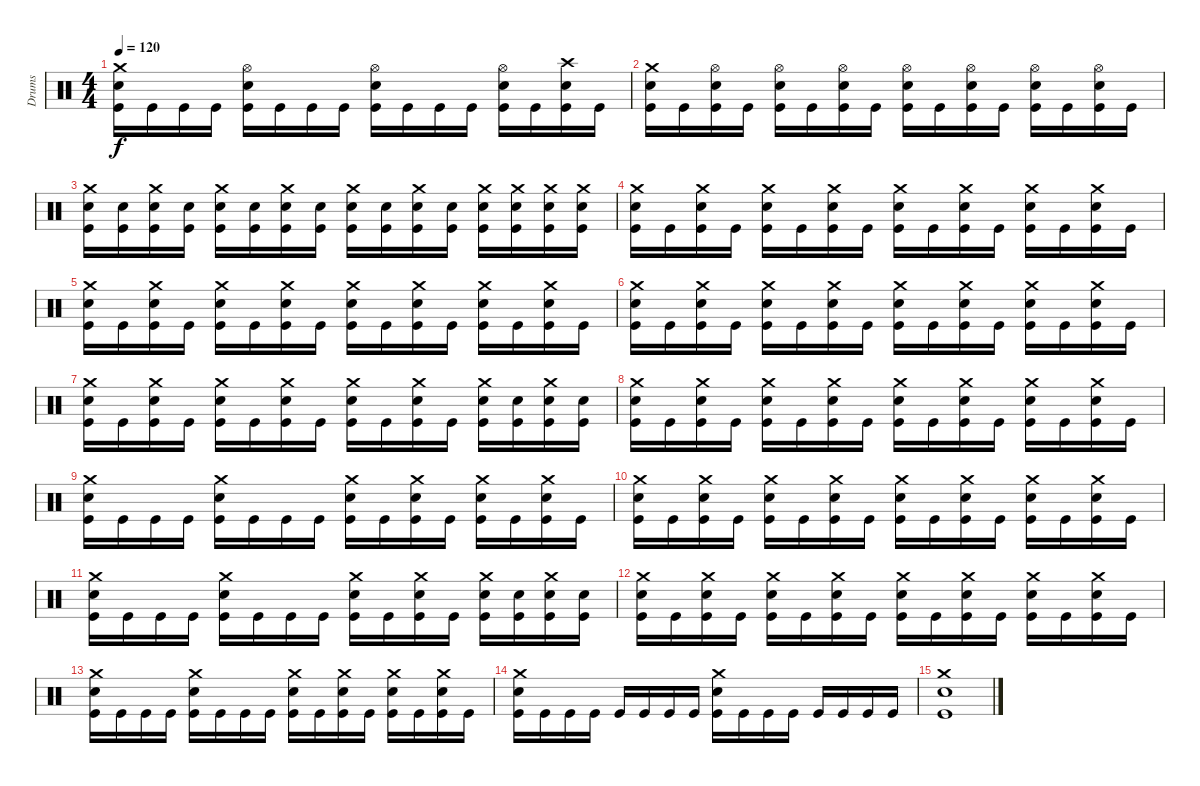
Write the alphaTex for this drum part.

\track ("Drums" "Drums") {instrument percussion}
\staff {score}
\articulation defaults
\ts (4 4)
\tempo 120
\clef neutral
\ks c
("Crash medium (hit)" "Snare (hit) 2" "Kick (hit)").16{dy f} "Kick (hit)".16 "Kick (hit)".16 "Kick (hit)".16 ("Hi-Hat (open)" "Snare (hit) 2" "Kick (hit)").16 "Kick (hit)".16 "Kick (hit)".16 "Kick (hit)".16 ("Hi-Hat (open)" "Snare (hit) 2" "Kick (hit)").16 "Kick (hit)".16 "Kick (hit)".16 "Kick (hit)".16 ("Hi-Hat (open)" "Snare (hit) 2" "Kick (hit)").16 "Kick (hit)".16 ("Crash high (hit)" "Snare (hit) 2" "Kick (hit)").16 "Kick (hit)".16 |
("Crash medium (hit)" "Snare (hit) 2" "Kick (hit)").16 "Kick (hit)".16 ("Hi-Hat (open)" "Snare (hit) 2" "Kick (hit)").16 "Kick (hit)".16 ("Hi-Hat (open)" "Snare (hit) 2" "Kick (hit)").16 "Kick (hit)".16 ("Hi-Hat (open)" "Snare (hit) 2" "Kick (hit)").16 "Kick (hit)".16 ("Hi-Hat (open)" "Snare (hit) 2" "Kick (hit)").16 "Kick (hit)".16 ("Hi-Hat (open)" "Snare (hit) 2" "Kick (hit)").16 "Kick (hit)".16 ("Hi-Hat (open)" "Snare (hit) 2" "Kick (hit)").16 "Kick (hit)".16 ("Hi-Hat (open)" "Snare (hit) 2" "Kick (hit)").16 "Kick (hit)".16 |
("Crash medium (hit)" "Snare (hit) 2" "Kick (hit)").16 ("Snare (hit) 2" "Kick (hit)").16 ("Crash medium (hit)" "Snare (hit) 2" "Kick (hit)").16 ("Snare (hit) 2" "Kick (hit)").16 ("Crash medium (hit)" "Snare (hit) 2" "Kick (hit)").16 ("Snare (hit) 2" "Kick (hit)").16 ("Crash medium (hit)" "Snare (hit) 2" "Kick (hit)").16 ("Snare (hit) 2" "Kick (hit)").16 ("Crash medium (hit)" "Snare (hit) 2" "Kick (hit)").16 ("Snare (hit) 2" "Kick (hit)").16 ("Crash medium (hit)" "Snare (hit) 2" "Kick (hit)").16 ("Snare (hit) 2" "Kick (hit)").16 ("Crash medium (hit)" "Snare (hit) 2" "Kick (hit)").16 ("Crash medium (hit)" "Snare (hit) 2" "Kick (hit)").16 ("Crash medium (hit)" "Snare (hit) 2" "Kick (hit)").16 ("Crash medium (hit)" "Snare (hit) 2" "Kick (hit)").16 |
("Crash medium (hit)" "Snare (hit) 2" "Kick (hit)").16 "Kick (hit)".16 ("Crash medium (hit)" "Snare (hit) 2" "Kick (hit)").16 "Kick (hit)".16 ("Crash medium (hit)" "Snare (hit) 2" "Kick (hit)").16 "Kick (hit)".16 ("Crash medium (hit)" "Snare (hit) 2" "Kick (hit)").16 "Kick (hit)".16 ("Crash medium (hit)" "Snare (hit) 2" "Kick (hit)").16 "Kick (hit)".16 ("Crash medium (hit)" "Snare (hit) 2" "Kick (hit)").16 "Kick (hit)".16 ("Crash medium (hit)" "Snare (hit) 2" "Kick (hit)").16 "Kick (hit)".16 ("Crash medium (hit)" "Snare (hit) 2" "Kick (hit)").16 "Kick (hit)".16 |
("Crash medium (hit)" "Snare (hit) 2" "Kick (hit)").16 "Kick (hit)".16 ("Crash medium (hit)" "Snare (hit) 2" "Kick (hit)").16 "Kick (hit)".16 ("Crash medium (hit)" "Snare (hit) 2" "Kick (hit)").16 "Kick (hit)".16 ("Crash medium (hit)" "Snare (hit) 2" "Kick (hit)").16 "Kick (hit)".16 ("Crash medium (hit)" "Snare (hit) 2" "Kick (hit)").16 "Kick (hit)".16 ("Crash medium (hit)" "Snare (hit) 2" "Kick (hit)").16 "Kick (hit)".16 ("Crash medium (hit)" "Snare (hit) 2" "Kick (hit)").16 "Kick (hit)".16 ("Crash medium (hit)" "Snare (hit) 2" "Kick (hit)").16 "Kick (hit)".16 |
("Crash medium (hit)" "Snare (hit) 2" "Kick (hit)").16 "Kick (hit)".16 ("Crash medium (hit)" "Snare (hit) 2" "Kick (hit)").16 "Kick (hit)".16 ("Crash medium (hit)" "Snare (hit) 2" "Kick (hit)").16 "Kick (hit)".16 ("Crash medium (hit)" "Snare (hit) 2" "Kick (hit)").16 "Kick (hit)".16 ("Crash medium (hit)" "Snare (hit) 2" "Kick (hit)").16 "Kick (hit)".16 ("Crash medium (hit)" "Snare (hit) 2" "Kick (hit)").16 "Kick (hit)".16 ("Crash medium (hit)" "Snare (hit) 2" "Kick (hit)").16 "Kick (hit)".16 ("Crash medium (hit)" "Snare (hit) 2" "Kick (hit)").16 "Kick (hit)".16 |
("Crash medium (hit)" "Snare (hit) 2" "Kick (hit)").16 "Kick (hit)".16 ("Crash medium (hit)" "Snare (hit) 2" "Kick (hit)").16 "Kick (hit)".16 ("Crash medium (hit)" "Snare (hit) 2" "Kick (hit)").16 "Kick (hit)".16 ("Crash medium (hit)" "Snare (hit) 2" "Kick (hit)").16 "Kick (hit)".16 ("Crash medium (hit)" "Snare (hit) 2" "Kick (hit)").16 "Kick (hit)".16 ("Crash medium (hit)" "Snare (hit) 2" "Kick (hit)").16 "Kick (hit)".16 ("Crash medium (hit)" "Snare (hit) 2" "Kick (hit)").16 ("Snare (hit) 2" "Kick (hit)").16 ("Crash medium (hit)" "Snare (hit) 2" "Kick (hit)").16 ("Snare (hit) 2" "Kick (hit)").16 |
("Crash medium (hit)" "Snare (hit) 2" "Kick (hit)").16 "Kick (hit)".16 ("Crash medium (hit)" "Snare (hit) 2" "Kick (hit)").16 "Kick (hit)".16 ("Crash medium (hit)" "Snare (hit) 2" "Kick (hit)").16 "Kick (hit)".16 ("Crash medium (hit)" "Snare (hit) 2" "Kick (hit)").16 "Kick (hit)".16 ("Crash medium (hit)" "Snare (hit) 2" "Kick (hit)").16 "Kick (hit)".16 ("Crash medium (hit)" "Snare (hit) 2" "Kick (hit)").16 "Kick (hit)".16 ("Crash medium (hit)" "Snare (hit) 2" "Kick (hit)").16 "Kick (hit)".16 ("Crash medium (hit)" "Snare (hit) 2" "Kick (hit)").16 "Kick (hit)".16 |
("Crash medium (hit)" "Snare (hit) 2" "Kick (hit)").16 "Kick (hit)".16 "Kick (hit)".16 "Kick (hit)".16 ("Crash medium (hit)" "Snare (hit) 2" "Kick (hit)").16 "Kick (hit)".16 "Kick (hit)".16 "Kick (hit)".16 ("Crash medium (hit)" "Snare (hit) 2" "Kick (hit)").16 "Kick (hit)".16 ("Crash medium (hit)" "Snare (hit) 2" "Kick (hit)").16 "Kick (hit)".16 ("Crash medium (hit)" "Snare (hit) 2" "Kick (hit)").16 "Kick (hit)".16 ("Crash medium (hit)" "Snare (hit) 2" "Kick (hit)").16 "Kick (hit)".16 |
("Crash medium (hit)" "Snare (hit) 2" "Kick (hit)").16 "Kick (hit)".16 ("Crash medium (hit)" "Snare (hit) 2" "Kick (hit)").16 "Kick (hit)".16 ("Crash medium (hit)" "Snare (hit) 2" "Kick (hit)").16 "Kick (hit)".16 ("Crash medium (hit)" "Snare (hit) 2" "Kick (hit)").16 "Kick (hit)".16 ("Crash medium (hit)" "Snare (hit) 2" "Kick (hit)").16 "Kick (hit)".16 ("Crash medium (hit)" "Snare (hit) 2" "Kick (hit)").16 "Kick (hit)".16 ("Crash medium (hit)" "Snare (hit) 2" "Kick (hit)").16 "Kick (hit)".16 ("Crash medium (hit)" "Snare (hit) 2" "Kick (hit)").16 "Kick (hit)".16 |
("Crash medium (hit)" "Snare (hit) 2" "Kick (hit)").16 "Kick (hit)".16 "Kick (hit)".16 "Kick (hit)".16 ("Crash medium (hit)" "Snare (hit) 2" "Kick (hit)").16 "Kick (hit)".16 "Kick (hit)".16 "Kick (hit)".16 ("Crash medium (hit)" "Snare (hit) 2" "Kick (hit)").16 "Kick (hit)".16 ("Crash medium (hit)" "Snare (hit) 2" "Kick (hit)").16 "Kick (hit)".16 ("Crash medium (hit)" "Snare (hit) 2" "Kick (hit)").16 ("Snare (hit) 2" "Kick (hit)").16 ("Crash medium (hit)" "Snare (hit) 2" "Kick (hit)").16 ("Snare (hit) 2" "Kick (hit)").16 |
("Crash medium (hit)" "Snare (hit) 2" "Kick (hit)").16 "Kick (hit)".16 ("Crash medium (hit)" "Snare (hit) 2" "Kick (hit)").16 "Kick (hit)".16 ("Crash medium (hit)" "Snare (hit) 2" "Kick (hit)").16 "Kick (hit)".16 ("Crash medium (hit)" "Snare (hit) 2" "Kick (hit)").16 "Kick (hit)".16 ("Crash medium (hit)" "Snare (hit) 2" "Kick (hit)").16 "Kick (hit)".16 ("Crash medium (hit)" "Snare (hit) 2" "Kick (hit)").16 "Kick (hit)".16 ("Crash medium (hit)" "Snare (hit) 2" "Kick (hit)").16 "Kick (hit)".16 ("Crash medium (hit)" "Snare (hit) 2" "Kick (hit)").16 "Kick (hit)".16 |
("Crash medium (hit)" "Snare (hit) 2" "Kick (hit)").16 "Kick (hit)".16 "Kick (hit)".16 "Kick (hit)".16 ("Crash medium (hit)" "Snare (hit) 2" "Kick (hit)").16 "Kick (hit)".16 "Kick (hit)".16 "Kick (hit)".16 ("Crash medium (hit)" "Snare (hit) 2" "Kick (hit)").16 "Kick (hit)".16 ("Crash medium (hit)" "Snare (hit) 2" "Kick (hit)").16 "Kick (hit)".16 ("Crash medium (hit)" "Snare (hit) 2" "Kick (hit)").16 "Kick (hit)".16 ("Crash medium (hit)" "Snare (hit) 2" "Kick (hit)").16 "Kick (hit)".16 |
("Crash medium (hit)" "Snare (hit) 2" "Kick (hit)").16 "Kick (hit)".16 "Kick (hit)".16 "Kick (hit)".16 "Kick (hit)".16 "Kick (hit)".16 "Kick (hit)".16 "Kick (hit)".16 ("Crash medium (hit)" "Snare (hit) 2" "Kick (hit)").16 "Kick (hit)".16 "Kick (hit)".16 "Kick (hit)".16 "Kick (hit)".16 "Kick (hit)".16 "Kick (hit)".16 "Kick (hit)".16 |
("Crash medium (hit)" "Snare (hit) 2" "Kick (hit)").1
